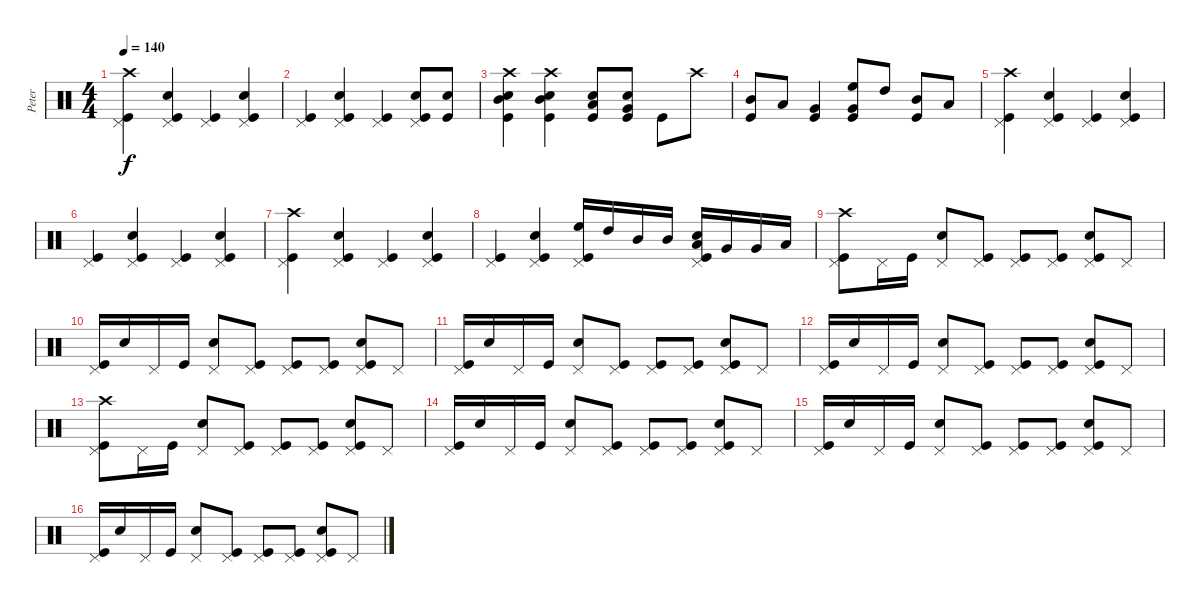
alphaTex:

\track ("Peter" "Peter") {instrument percussion}
\staff {score}
\articulation defaults
\ts (4 4)
\tempo 140
\clef neutral
\ks c
("Crash high (hit)" "Kick (hit)" "Pedal Hi-Hat (hit)").4{dy f} ("Pedal Hi-Hat (hit)" "Snare (hit) 2" "Kick (hit)").4 ("Kick (hit)" "Pedal Hi-Hat (hit)").4 ("Snare (hit) 2" "Pedal Hi-Hat (hit)" "Kick (hit)").4 |
("Pedal Hi-Hat (hit)" "Kick (hit)").4 ("Snare (hit) 2" "Kick (hit)" "Pedal Hi-Hat (hit)").4 ("Kick (hit)" "Pedal Hi-Hat (hit)").4 ("Snare (hit) 2" "Pedal Hi-Hat (hit)" "Kick (hit)").8 ("Kick (hit)" "Snare (hit) 2").8 |
("Snare (hit) 2" "Crash high (hit)" "Kick (hit)" "Mid Tom (hit)").4 ("Kick (hit)" "Crash high (hit)" "Snare (hit) 2" "Mid Tom (hit)").4 ("Low Tom (hit)" "Snare (hit) 2" "Kick (hit)").8 ("Snare (hit) 2" "Kick (hit)" "Very Low Tom (hit)").8 "Kick (hit)".8 "Crash high (hit)".8 |
("Mid Tom (hit)" "Kick (hit)").8 "Low Tom (hit)".8 ("Very Low Tom (hit)" "Kick (hit)").4 ("Kick (hit)" "Very Low Tom (hit)" "High Floor Tom (hit)").8 "High Tom (hit)".8 ("Kick (hit)" "Mid Tom (hit)").8 "Low Tom (hit)".8 |
("Kick (hit)" "Crash high (hit)" "Pedal Hi-Hat (hit)").4 ("Snare (hit) 2" "Kick (hit)" "Pedal Hi-Hat (hit)").4 ("Pedal Hi-Hat (hit)" "Kick (hit)").4 ("Snare (hit) 2" "Pedal Hi-Hat (hit)" "Kick (hit)").4 |
("Pedal Hi-Hat (hit)" "Kick (hit)").4 ("Snare (hit) 2" "Pedal Hi-Hat (hit)" "Kick (hit)").4 ("Kick (hit)" "Pedal Hi-Hat (hit)").4 ("Pedal Hi-Hat (hit)" "Kick (hit)" "Snare (hit) 2").4 |
("Pedal Hi-Hat (hit)" "Crash high (hit)" "Kick (hit)").4 ("Snare (hit) 2" "Kick (hit)" "Pedal Hi-Hat (hit)").4 ("Kick (hit)" "Pedal Hi-Hat (hit)").4 ("Snare (hit) 2" "Kick (hit)" "Pedal Hi-Hat (hit)").4 |
("Pedal Hi-Hat (hit)" "Kick (hit)").4 ("Kick (hit)" "Pedal Hi-Hat (hit)" "Snare (hit) 2").4 ("Pedal Hi-Hat (hit)" "Kick (hit)" "High Floor Tom (hit)").16 "High Tom (hit)".16 "Mid Tom (hit)".16 "Mid Tom (hit)".16 ("Low Tom (hit)" "Pedal Hi-Hat (hit)" "Snare (hit) 2" "Kick (hit)").16 "Very Low Tom (hit)".16 "Very Low Tom (hit)".16 "Low Floor Tom (hit)".16 |
("Kick (hit)" "Crash high (hit)" "Pedal Hi-Hat (hit)").8 "Pedal Hi-Hat (hit)".16 "Kick (hit)".16 ("Electric Snare (hit)" "Pedal Hi-Hat (hit)").8 ("Pedal Hi-Hat (hit)" "Kick (hit)").8 ("Kick (hit)" "Pedal Hi-Hat (hit)").8 ("Kick (hit)" "Pedal Hi-Hat (hit)").8 ("Electric Snare (hit)" "Pedal Hi-Hat (hit)" "Kick (hit)").8 "Pedal Hi-Hat (hit)".8 |
("Pedal Hi-Hat (hit)" "Kick (hit)").16 "Electric Snare (hit)".16 "Pedal Hi-Hat (hit)".16 "Kick (hit)".16 ("Electric Snare (hit)" "Pedal Hi-Hat (hit)").8 ("Kick (hit)" "Pedal Hi-Hat (hit)").8 ("Pedal Hi-Hat (hit)" "Kick (hit)").8 ("Kick (hit)" "Pedal Hi-Hat (hit)").8 ("Pedal Hi-Hat (hit)" "Kick (hit)" "Electric Snare (hit)").8 "Pedal Hi-Hat (hit)".8 |
("Pedal Hi-Hat (hit)" "Kick (hit)").16 "Electric Snare (hit)".16 "Pedal Hi-Hat (hit)".16 "Kick (hit)".16 ("Pedal Hi-Hat (hit)" "Electric Snare (hit)").8 ("Kick (hit)" "Pedal Hi-Hat (hit)").8 ("Kick (hit)" "Pedal Hi-Hat (hit)").8 ("Kick (hit)" "Pedal Hi-Hat (hit)").8 ("Electric Snare (hit)" "Pedal Hi-Hat (hit)" "Kick (hit)").8 "Pedal Hi-Hat (hit)".8 |
("Kick (hit)" "Pedal Hi-Hat (hit)").16 "Electric Snare (hit)".16 "Pedal Hi-Hat (hit)".16 "Kick (hit)".16 ("Electric Snare (hit)" "Pedal Hi-Hat (hit)").8 ("Pedal Hi-Hat (hit)" "Kick (hit)").8 ("Kick (hit)" "Pedal Hi-Hat (hit)").8 ("Pedal Hi-Hat (hit)" "Kick (hit)").8 ("Electric Snare (hit)" "Pedal Hi-Hat (hit)" "Kick (hit)").8 "Pedal Hi-Hat (hit)".8 |
("Crash high (hit)" "Kick (hit)" "Pedal Hi-Hat (hit)").8 "Pedal Hi-Hat (hit)".16 "Kick (hit)".16 ("Pedal Hi-Hat (hit)" "Electric Snare (hit)").8 ("Pedal Hi-Hat (hit)" "Kick (hit)").8 ("Pedal Hi-Hat (hit)" "Kick (hit)").8 ("Pedal Hi-Hat (hit)" "Kick (hit)").8 ("Kick (hit)" "Pedal Hi-Hat (hit)" "Electric Snare (hit)").8 "Pedal Hi-Hat (hit)".8 |
("Kick (hit)" "Pedal Hi-Hat (hit)").16 "Electric Snare (hit)".16 "Pedal Hi-Hat (hit)".16 "Kick (hit)".16 ("Pedal Hi-Hat (hit)" "Electric Snare (hit)").8 ("Pedal Hi-Hat (hit)" "Kick (hit)").8 ("Pedal Hi-Hat (hit)" "Kick (hit)").8 ("Pedal Hi-Hat (hit)" "Kick (hit)").8 ("Electric Snare (hit)" "Kick (hit)" "Pedal Hi-Hat (hit)").8 "Pedal Hi-Hat (hit)".8 |
("Kick (hit)" "Pedal Hi-Hat (hit)").16 "Electric Snare (hit)".16 "Pedal Hi-Hat (hit)".16 "Kick (hit)".16 ("Pedal Hi-Hat (hit)" "Electric Snare (hit)").8 ("Kick (hit)" "Pedal Hi-Hat (hit)").8 ("Kick (hit)" "Pedal Hi-Hat (hit)").8 ("Kick (hit)" "Pedal Hi-Hat (hit)").8 ("Pedal Hi-Hat (hit)" "Kick (hit)" "Electric Snare (hit)").8 "Pedal Hi-Hat (hit)".8 |
("Pedal Hi-Hat (hit)" "Kick (hit)").16 "Electric Snare (hit)".16 "Pedal Hi-Hat (hit)".16 "Kick (hit)".16 ("Pedal Hi-Hat (hit)" "Electric Snare (hit)").8 ("Pedal Hi-Hat (hit)" "Kick (hit)").8 ("Pedal Hi-Hat (hit)" "Kick (hit)").8 ("Kick (hit)" "Pedal Hi-Hat (hit)").8 ("Kick (hit)" "Electric Snare (hit)" "Pedal Hi-Hat (hit)").8 "Pedal Hi-Hat (hit)".8
